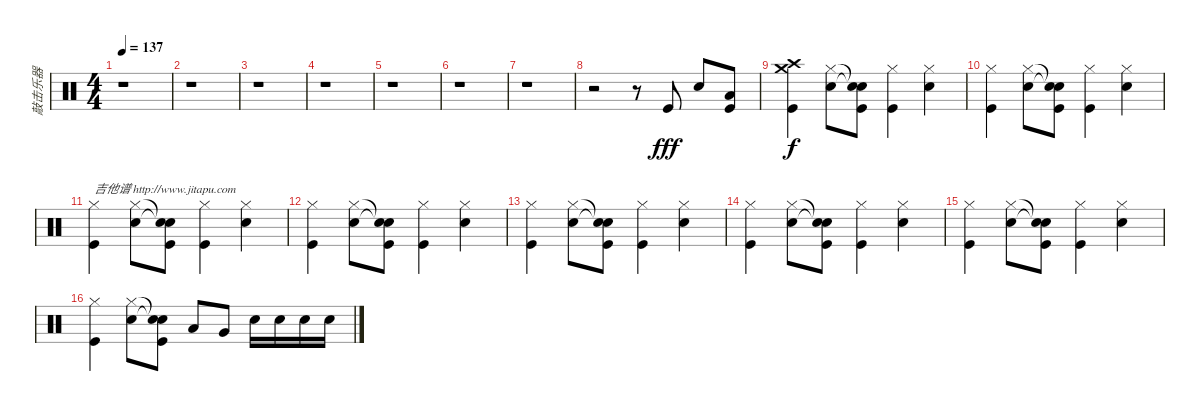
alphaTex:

\track ("敲击乐器" "敲击乐器") {instrument percussion}
\staff {score}
\articulation defaults
\ts (4 4)
\tempo 137
\clef neutral
\ks c
r.1{dy fff} |
r.1 |
r.1 |
r.1 |
r.1 |
r.1 |
r.1 |
r.2 r.8 "Kick (hit)".8 "Snare (hit) 2".8 ("Low Tom (hit)" "Kick (hit)").8 |
("Crash medium (hit)" "Crash high (hit)" "Kick (hit)").4{dy f} ("Hi-Hat (closed)" "Snare (hit) 2").8 ("Snare (hit)"{t} "Snare (hit)"{t} "Kick (hit)").8 ("Hi-Hat (closed)" "Kick (hit)").4 ("Hi-Hat (closed)" "Snare (hit) 2").4 |
("Hi-Hat (closed)" "Kick (hit)").4 ("Hi-Hat (closed)" "Snare (hit) 2").8 ("Snare (hit)"{t} "Snare (hit)"{t} "Kick (hit)").8 ("Hi-Hat (closed)" "Kick (hit)").4 ("Hi-Hat (closed)" "Snare (hit) 2").4 |
("Hi-Hat (closed)" "Kick (hit)").4{txt "吉他谱 http://www.jitapu.com"} ("Hi-Hat (closed)" "Snare (hit) 2").8 ("Snare (hit)"{t} "Snare (hit)"{t} "Kick (hit)").8 ("Hi-Hat (closed)" "Kick (hit)").4 ("Hi-Hat (closed)" "Snare (hit) 2").4 |
("Hi-Hat (closed)" "Kick (hit)").4 ("Hi-Hat (closed)" "Snare (hit) 2").8 ("Snare (hit)"{t} "Snare (hit)"{t} "Kick (hit)").8 ("Hi-Hat (closed)" "Kick (hit)").4 ("Hi-Hat (closed)" "Snare (hit) 2").4 |
("Hi-Hat (closed)" "Kick (hit)").4 ("Hi-Hat (closed)" "Snare (hit) 2").8 ("Snare (hit)"{t} "Snare (hit)"{t} "Kick (hit)").8 ("Hi-Hat (closed)" "Kick (hit)").4 ("Hi-Hat (closed)" "Snare (hit) 2").4 |
("Hi-Hat (closed)" "Kick (hit)").4 ("Hi-Hat (closed)" "Snare (hit) 2").8 ("Snare (hit)"{t} "Snare (hit)"{t} "Kick (hit)").8 ("Hi-Hat (closed)" "Kick (hit)").4 ("Hi-Hat (closed)" "Snare (hit) 2").4 |
("Hi-Hat (closed)" "Kick (hit)").4 ("Hi-Hat (closed)" "Snare (hit) 2").8 ("Snare (hit)"{t} "Snare (hit)"{t} "Kick (hit)").8 ("Hi-Hat (closed)" "Kick (hit)").4 ("Hi-Hat (closed)" "Snare (hit) 2").4 |
("Hi-Hat (closed)" "Kick (hit)").4 ("Hi-Hat (closed)" "Snare (hit) 2").8 ("Snare (hit)"{t} "Snare (hit)"{t} "Kick (hit)").8 "Low Tom (hit)".8 "Very Low Tom (hit)".8 "Snare (hit) 2".16 "Snare (hit) 2".16 "Snare (hit) 2".16 "Snare (hit) 2".16
